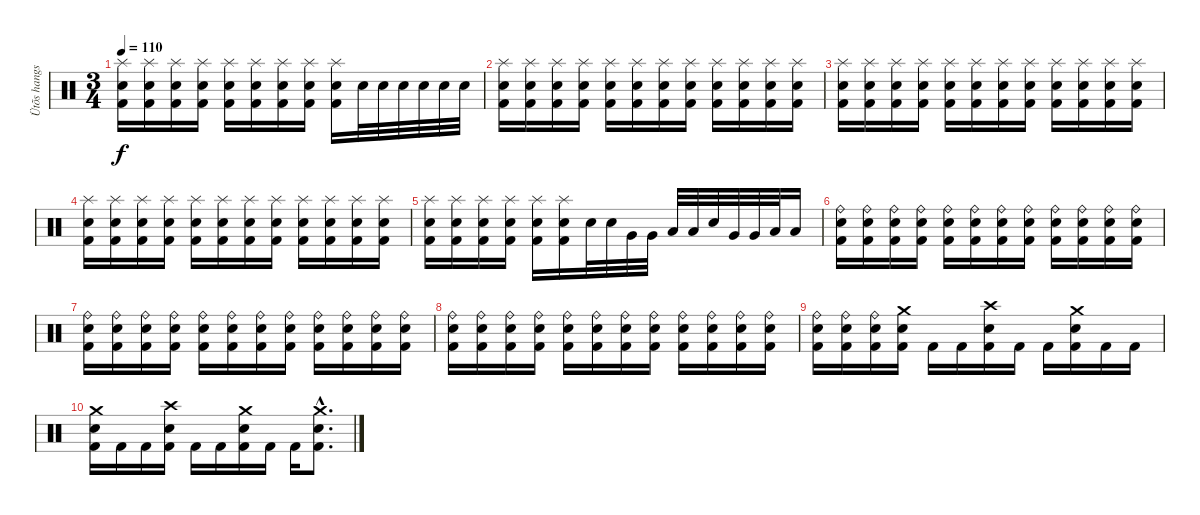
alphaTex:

\track ("Ütõs hangszer" "Ütõs hangs") {instrument percussion}
\staff {score}
\articulation defaults
\ts (3 4)
\tempo 110
\clef neutral
\ks c
("Splash (hit)" "Electric Snare (hit)" "Kick (hit) 2").16{dy f} ("Splash (hit)" "Electric Snare (hit)" "Kick (hit) 2").16 ("Splash (hit)" "Electric Snare (hit)" "Kick (hit) 2").16 ("Splash (hit)" "Electric Snare (hit)" "Kick (hit) 2").16 ("Splash (hit)" "Electric Snare (hit)" "Kick (hit) 2").16 ("Splash (hit)" "Electric Snare (hit)" "Kick (hit) 2").16 ("Splash (hit)" "Electric Snare (hit)" "Kick (hit) 2").16 ("Splash (hit)" "Electric Snare (hit)" "Kick (hit) 2").16 ("Splash (hit)" "Electric Snare (hit)" "Kick (hit) 2").16 "Electric Snare (hit)".32 "Electric Snare (hit)".32 "Electric Snare (hit)".32 "Electric Snare (hit)".32 "Electric Snare (hit)".32 "Electric Snare (hit)".32 |
("Splash (hit)" "Electric Snare (hit)" "Kick (hit) 2").16 ("Splash (hit)" "Electric Snare (hit)" "Kick (hit) 2").16 ("Splash (hit)" "Electric Snare (hit)" "Kick (hit) 2").16 ("Splash (hit)" "Electric Snare (hit)" "Kick (hit) 2").16 ("Splash (hit)" "Electric Snare (hit)" "Kick (hit) 2").16 ("Splash (hit)" "Electric Snare (hit)" "Kick (hit) 2").16 ("Splash (hit)" "Electric Snare (hit)" "Kick (hit) 2").16 ("Splash (hit)" "Electric Snare (hit)" "Kick (hit) 2").16 ("Splash (hit)" "Electric Snare (hit)" "Kick (hit) 2").16 ("Splash (hit)" "Electric Snare (hit)" "Kick (hit) 2").16 ("Splash (hit)" "Electric Snare (hit)" "Kick (hit) 2").16 ("Splash (hit)" "Electric Snare (hit)" "Kick (hit) 2").16 |
("Splash (hit)" "Electric Snare (hit)" "Kick (hit) 2").16 ("Splash (hit)" "Electric Snare (hit)" "Kick (hit) 2").16 ("Splash (hit)" "Electric Snare (hit)" "Kick (hit) 2").16 ("Splash (hit)" "Electric Snare (hit)" "Kick (hit) 2").16 ("Splash (hit)" "Electric Snare (hit)" "Kick (hit) 2").16 ("Splash (hit)" "Electric Snare (hit)" "Kick (hit) 2").16 ("Splash (hit)" "Electric Snare (hit)" "Kick (hit) 2").16 ("Splash (hit)" "Electric Snare (hit)" "Kick (hit) 2").16 ("Splash (hit)" "Electric Snare (hit)" "Kick (hit) 2").16 ("Splash (hit)" "Electric Snare (hit)" "Kick (hit) 2").16 ("Splash (hit)" "Electric Snare (hit)" "Kick (hit) 2").16 ("Splash (hit)" "Electric Snare (hit)" "Kick (hit) 2").16 |
("Splash (hit)" "Electric Snare (hit)" "Kick (hit) 2").16 ("Splash (hit)" "Electric Snare (hit)" "Kick (hit) 2").16 ("Splash (hit)" "Electric Snare (hit)" "Kick (hit) 2").16 ("Splash (hit)" "Electric Snare (hit)" "Kick (hit) 2").16 ("Splash (hit)" "Electric Snare (hit)" "Kick (hit) 2").16 ("Splash (hit)" "Electric Snare (hit)" "Kick (hit) 2").16 ("Splash (hit)" "Electric Snare (hit)" "Kick (hit) 2").16 ("Splash (hit)" "Electric Snare (hit)" "Kick (hit) 2").16 ("Splash (hit)" "Electric Snare (hit)" "Kick (hit) 2").16 ("Splash (hit)" "Electric Snare (hit)" "Kick (hit) 2").16 ("Splash (hit)" "Electric Snare (hit)" "Kick (hit) 2").16 ("Splash (hit)" "Electric Snare (hit)" "Kick (hit) 2").16 |
("Splash (hit)" "Electric Snare (hit)" "Kick (hit) 2").16 ("Splash (hit)" "Electric Snare (hit)" "Kick (hit) 2").16 ("Splash (hit)" "Electric Snare (hit)" "Kick (hit) 2").16 ("Splash (hit)" "Electric Snare (hit)" "Kick (hit) 2").16 ("Splash (hit)" "Electric Snare (hit)" "Kick (hit) 2").16 ("Splash (hit)" "Electric Snare (hit)" "Kick (hit) 2").16 "Electric Snare (hit)".32 "Electric Snare (hit)".32 "Very Low Tom (hit)".32 "Very Low Tom (hit)".32 "Low Floor Tom (hit)".32 "Low Floor Tom (hit)".32 "Electric Snare (hit)".32 "Very Low Tom (hit)".32 "Very Low Tom (hit)".32 "Low Floor Tom (hit)".32 "Low Floor Tom (hit)".16 |
("Ride (bell)" "Electric Snare (hit)" "Kick (hit) 2").16 ("Ride (bell)" "Electric Snare (hit)" "Kick (hit) 2").16 ("Ride (bell)" "Electric Snare (hit)" "Kick (hit) 2").16 ("Ride (bell)" "Electric Snare (hit)" "Kick (hit) 2").16 ("Ride (bell)" "Electric Snare (hit)" "Kick (hit) 2").16 ("Ride (bell)" "Electric Snare (hit)" "Kick (hit) 2").16 ("Ride (bell)" "Electric Snare (hit)" "Kick (hit) 2").16 ("Ride (bell)" "Electric Snare (hit)" "Kick (hit) 2").16 ("Ride (bell)" "Electric Snare (hit)" "Kick (hit) 2").16 ("Ride (bell)" "Electric Snare (hit)" "Kick (hit) 2").16 ("Ride (bell)" "Electric Snare (hit)" "Kick (hit) 2").16 ("Ride (bell)" "Electric Snare (hit)" "Kick (hit) 2").16 |
("Ride (bell)" "Electric Snare (hit)" "Kick (hit) 2").16 ("Ride (bell)" "Electric Snare (hit)" "Kick (hit) 2").16 ("Ride (bell)" "Electric Snare (hit)" "Kick (hit) 2").16 ("Ride (bell)" "Electric Snare (hit)" "Kick (hit) 2").16 ("Ride (bell)" "Electric Snare (hit)" "Kick (hit) 2").16 ("Ride (bell)" "Electric Snare (hit)" "Kick (hit) 2").16 ("Ride (bell)" "Electric Snare (hit)" "Kick (hit) 2").16 ("Ride (bell)" "Electric Snare (hit)" "Kick (hit) 2").16 ("Ride (bell)" "Electric Snare (hit)" "Kick (hit) 2").16 ("Ride (bell)" "Electric Snare (hit)" "Kick (hit) 2").16 ("Ride (bell)" "Electric Snare (hit)" "Kick (hit) 2").16 ("Ride (bell)" "Electric Snare (hit)" "Kick (hit) 2").16 |
("Ride (bell)" "Electric Snare (hit)" "Kick (hit) 2").16 ("Ride (bell)" "Electric Snare (hit)" "Kick (hit) 2").16 ("Ride (bell)" "Electric Snare (hit)" "Kick (hit) 2").16 ("Ride (bell)" "Electric Snare (hit)" "Kick (hit) 2").16 ("Ride (bell)" "Electric Snare (hit)" "Kick (hit) 2").16 ("Ride (bell)" "Electric Snare (hit)" "Kick (hit) 2").16 ("Ride (bell)" "Electric Snare (hit)" "Kick (hit) 2").16 ("Ride (bell)" "Electric Snare (hit)" "Kick (hit) 2").16 ("Ride (bell)" "Electric Snare (hit)" "Kick (hit) 2").16 ("Ride (bell)" "Electric Snare (hit)" "Kick (hit) 2").16 ("Ride (bell)" "Electric Snare (hit)" "Kick (hit) 2").16 ("Ride (bell)" "Electric Snare (hit)" "Kick (hit) 2").16 |
("Ride (bell)" "Electric Snare (hit)" "Kick (hit) 2").16 ("Ride (bell)" "Electric Snare (hit)" "Kick (hit) 2").16 ("Ride (bell)" "Electric Snare (hit)" "Kick (hit) 2").16 ("Crash medium (hit)" "Electric Snare (hit)" "Kick (hit) 2").16 "Kick (hit) 2".16 "Kick (hit) 2".16 ("Crash high (hit)" "Electric Snare (hit)" "Kick (hit) 2").16 "Kick (hit) 2".16 "Kick (hit) 2".16 ("Crash medium (hit)" "Electric Snare (hit)" "Kick (hit) 2").16 "Kick (hit) 2".16 "Kick (hit) 2".16 |
("Crash medium (hit)" "Electric Snare (hit)" "Kick (hit) 2").16 "Kick (hit) 2".16 "Kick (hit) 2".16 ("Crash high (hit)" "Electric Snare (hit)" "Kick (hit) 2").16 "Kick (hit) 2".16 "Kick (hit) 2".16 ("Crash medium (hit)" "Electric Snare (hit)" "Kick (hit) 2").16 "Kick (hit) 2".16 "Kick (hit) 2".16 ("Crash medium (hit)"{hac} "Electric Snare (hit)"{hac} "Kick (hit) 2"{hac}).8{d}
